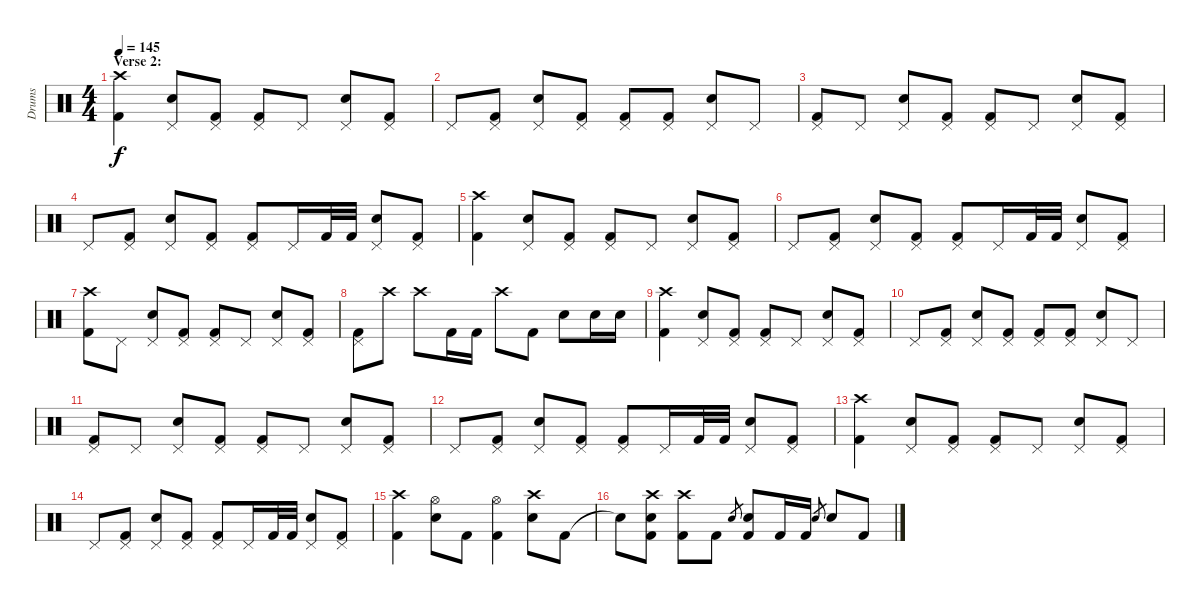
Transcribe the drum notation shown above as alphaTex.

\track ("Drums" "Drums") {instrument percussion}
\staff {score}
\articulation defaults
\ts (4 4)
\section ("" "Verse 2:")
\tempo 145
\clef neutral
\ks c
("Crash high (hit)" "Kick (hit) 2").4{dy f} ("Pedal Hi-Hat (hit)" "Electric Snare (hit)").8 ("Pedal Hi-Hat (hit)" "Kick (hit) 2").8 ("Pedal Hi-Hat (hit)" "Kick (hit) 2").8 "Pedal Hi-Hat (hit)".8 ("Pedal Hi-Hat (hit)" "Electric Snare (hit)").8 ("Pedal Hi-Hat (hit)" "Kick (hit) 2").8 |
"Pedal Hi-Hat (hit)".8 ("Pedal Hi-Hat (hit)" "Kick (hit) 2").8 ("Pedal Hi-Hat (hit)" "Electric Snare (hit)").8 ("Pedal Hi-Hat (hit)" "Kick (hit) 2").8 ("Pedal Hi-Hat (hit)" "Kick (hit) 2").8 ("Pedal Hi-Hat (hit)" "Kick (hit) 2").8 ("Pedal Hi-Hat (hit)" "Electric Snare (hit)").8 "Pedal Hi-Hat (hit)".8 |
("Pedal Hi-Hat (hit)" "Kick (hit) 2").8 "Pedal Hi-Hat (hit)".8 ("Pedal Hi-Hat (hit)" "Electric Snare (hit)").8 ("Pedal Hi-Hat (hit)" "Kick (hit) 2").8 ("Pedal Hi-Hat (hit)" "Kick (hit) 2").8 "Pedal Hi-Hat (hit)".8 ("Pedal Hi-Hat (hit)" "Electric Snare (hit)").8 ("Pedal Hi-Hat (hit)" "Kick (hit) 2").8 |
"Pedal Hi-Hat (hit)".8 ("Pedal Hi-Hat (hit)" "Kick (hit) 2").8 ("Pedal Hi-Hat (hit)" "Electric Snare (hit)").8 ("Pedal Hi-Hat (hit)" "Kick (hit) 2").8 ("Pedal Hi-Hat (hit)" "Kick (hit) 2").8 "Pedal Hi-Hat (hit)".16 "Kick (hit) 2".32 "Kick (hit) 2".32 ("Pedal Hi-Hat (hit)" "Electric Snare (hit)").8 ("Pedal Hi-Hat (hit)" "Kick (hit) 2").8 |
("Crash high (hit)" "Kick (hit) 2").4 ("Pedal Hi-Hat (hit)" "Electric Snare (hit)").8 ("Pedal Hi-Hat (hit)" "Kick (hit) 2").8 ("Pedal Hi-Hat (hit)" "Kick (hit) 2").8 "Pedal Hi-Hat (hit)".8 ("Pedal Hi-Hat (hit)" "Electric Snare (hit)").8 ("Pedal Hi-Hat (hit)" "Kick (hit) 2").8 |
"Pedal Hi-Hat (hit)".8 ("Pedal Hi-Hat (hit)" "Kick (hit) 2").8 ("Pedal Hi-Hat (hit)" "Electric Snare (hit)").8 ("Pedal Hi-Hat (hit)" "Kick (hit) 2").8 ("Pedal Hi-Hat (hit)" "Kick (hit) 2").8 "Pedal Hi-Hat (hit)".16 "Kick (hit) 2".32 "Kick (hit) 2".32 ("Pedal Hi-Hat (hit)" "Electric Snare (hit)").8 ("Pedal Hi-Hat (hit)" "Kick (hit) 2").8 |
("Crash high (hit)" "Kick (hit) 2").8 "Pedal Hi-Hat (hit)".8 ("Pedal Hi-Hat (hit)" "Electric Snare (hit)").8 ("Pedal Hi-Hat (hit)" "Kick (hit) 2").8 ("Pedal Hi-Hat (hit)" "Kick (hit) 2").8 "Pedal Hi-Hat (hit)".8 ("Pedal Hi-Hat (hit)" "Electric Snare (hit)").8 ("Pedal Hi-Hat (hit)" "Kick (hit) 2").8 |
("Pedal Hi-Hat (hit)" "Kick (hit) 2").8 "Crash high (hit)".8 "Crash high (hit)".8 "Kick (hit) 2".16 "Kick (hit) 2".16 "Crash high (hit)".8 "Kick (hit) 2".8 "Electric Snare (hit)".8 "Electric Snare (hit)".16 "Electric Snare (hit)".16 |
("Crash high (hit)" "Kick (hit) 2").4 ("Pedal Hi-Hat (hit)" "Electric Snare (hit)").8 ("Pedal Hi-Hat (hit)" "Kick (hit) 2").8 ("Pedal Hi-Hat (hit)" "Kick (hit) 2").8 "Pedal Hi-Hat (hit)".8 ("Pedal Hi-Hat (hit)" "Electric Snare (hit)").8 ("Pedal Hi-Hat (hit)" "Kick (hit) 2").8 |
"Pedal Hi-Hat (hit)".8 ("Pedal Hi-Hat (hit)" "Kick (hit) 2").8 ("Pedal Hi-Hat (hit)" "Electric Snare (hit)").8 ("Pedal Hi-Hat (hit)" "Kick (hit) 2").8 ("Pedal Hi-Hat (hit)" "Kick (hit) 2").8 ("Pedal Hi-Hat (hit)" "Kick (hit) 2").8 ("Pedal Hi-Hat (hit)" "Electric Snare (hit)").8 "Pedal Hi-Hat (hit)".8 |
("Pedal Hi-Hat (hit)" "Kick (hit) 2").8 "Pedal Hi-Hat (hit)".8 ("Pedal Hi-Hat (hit)" "Electric Snare (hit)").8 ("Pedal Hi-Hat (hit)" "Kick (hit) 2").8 ("Pedal Hi-Hat (hit)" "Kick (hit) 2").8 "Pedal Hi-Hat (hit)".8 ("Pedal Hi-Hat (hit)" "Electric Snare (hit)").8 ("Pedal Hi-Hat (hit)" "Kick (hit) 2").8 |
"Pedal Hi-Hat (hit)".8 ("Pedal Hi-Hat (hit)" "Kick (hit) 2").8 ("Pedal Hi-Hat (hit)" "Electric Snare (hit)").8 ("Pedal Hi-Hat (hit)" "Kick (hit) 2").8 ("Pedal Hi-Hat (hit)" "Kick (hit) 2").8 "Pedal Hi-Hat (hit)".16 "Kick (hit) 2".32 "Kick (hit) 2".32 ("Pedal Hi-Hat (hit)" "Electric Snare (hit)").8 ("Pedal Hi-Hat (hit)" "Kick (hit) 2").8 |
("Crash high (hit)" "Kick (hit) 2").4 ("Pedal Hi-Hat (hit)" "Electric Snare (hit)").8 ("Pedal Hi-Hat (hit)" "Kick (hit) 2").8 ("Pedal Hi-Hat (hit)" "Kick (hit) 2").8 "Pedal Hi-Hat (hit)".8 ("Pedal Hi-Hat (hit)" "Electric Snare (hit)").8 ("Pedal Hi-Hat (hit)" "Kick (hit) 2").8 |
"Pedal Hi-Hat (hit)".8 ("Pedal Hi-Hat (hit)" "Kick (hit) 2").8 ("Pedal Hi-Hat (hit)" "Electric Snare (hit)").8 ("Pedal Hi-Hat (hit)" "Kick (hit) 2").8 ("Pedal Hi-Hat (hit)" "Kick (hit) 2").8 "Pedal Hi-Hat (hit)".16 "Kick (hit) 2".32 "Kick (hit) 2".32 ("Pedal Hi-Hat (hit)" "Electric Snare (hit)").8 ("Pedal Hi-Hat (hit)" "Kick (hit) 2").8 |
("Crash high (hit)" "Kick (hit) 2").4 ("Hi-Hat (open)" "Electric Snare (hit)").8 "Kick (hit) 2".8 ("Hi-Hat (open)" "Kick (hit) 2").4 ("Crash high (hit)" "Electric Snare (hit)").8 "Kick (hit) 2".8 |
"Snare (hit)"{t}.8 ("Crash high (hit)" "Electric Snare (hit)" "Kick (hit) 2").8 ("Crash high (hit)" "Kick (hit) 2").8 "Kick (hit) 2".8 "Electric Snare (hit)".8{gr} ("Electric Snare (hit)" "Kick (hit) 2").8 "Kick (hit) 2".16 "Kick (hit) 2".16 "Electric Snare (hit)".8{gr} "Electric Snare (hit)".8 "Kick (hit) 2".8
